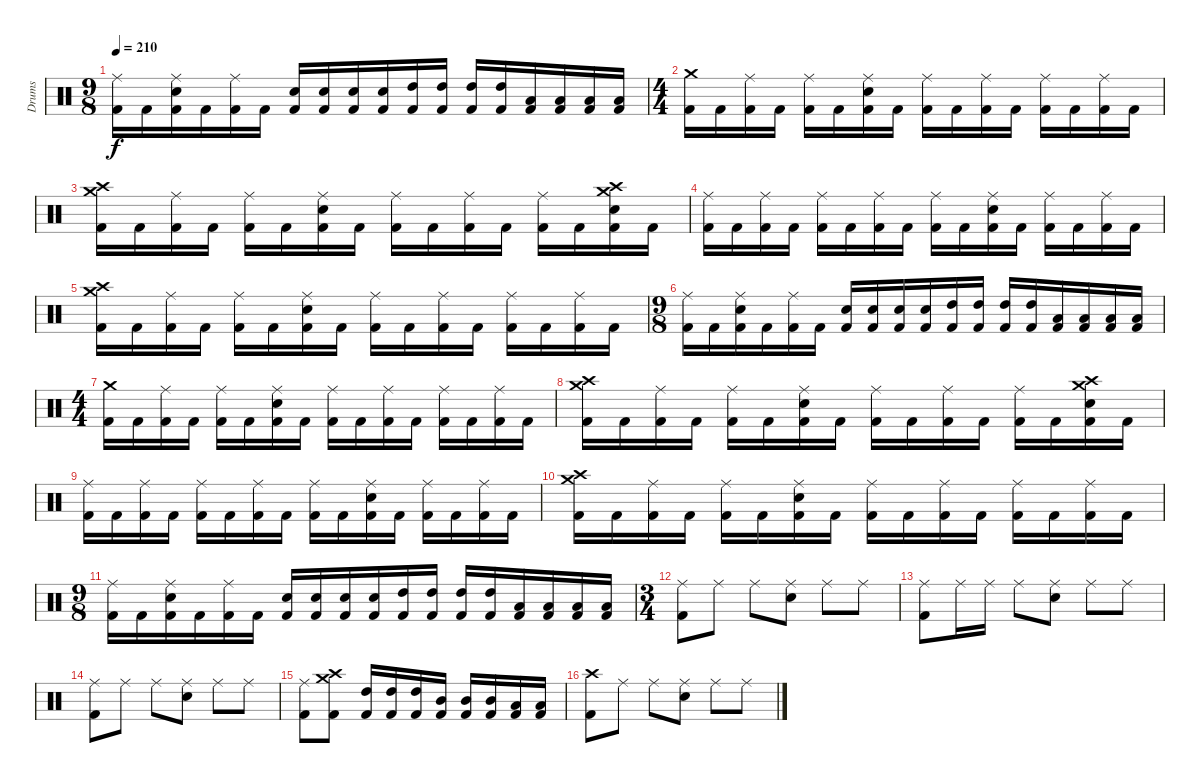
\track ("Drums" "Drums") {instrument percussion}
\staff {score}
\articulation defaults
\ts (9 8)
\tempo 210
\clef neutral
\ks c
("Kick (hit) 2" "Ride (middle)").16{dy f} "Kick (hit) 2".16 ("Kick (hit) 2" "Electric Snare (hit)" "Ride (middle)").16 "Kick (hit) 2".16 ("Kick (hit) 2" "Ride (middle)").16 "Kick (hit) 2".16 ("Kick (hit) 2" "Electric Snare (hit)").16 ("Kick (hit) 2" "Electric Snare (hit)").16 ("Kick (hit) 2" "Electric Snare (hit)").16 ("Kick (hit) 2" "Electric Snare (hit)").16 ("Kick (hit) 2" "High Tom (hit)").16 ("Kick (hit) 2" "High Tom (hit)").16 ("Kick (hit) 2" "High Tom (hit)").16 ("Kick (hit) 2" "High Tom (hit)").16 ("Kick (hit) 2" "Low Tom (hit)").16 ("Kick (hit) 2" "Low Tom (hit)").16 ("Kick (hit) 2" "Low Tom (hit)").16 ("Kick (hit) 2" "Low Tom (hit)").16 |
\ts (4 4)
("Kick (hit) 2" "Crash medium (hit)").16 "Kick (hit) 2".16 ("Kick (hit) 2" "Ride (middle)").16 "Kick (hit) 2".16 ("Kick (hit) 2" "Ride (middle)").16 "Kick (hit) 2".16 ("Kick (hit) 2" "Electric Snare (hit)" "Ride (middle)").16 "Kick (hit) 2".16 ("Kick (hit) 2" "Ride (middle)").16 "Kick (hit) 2".16 ("Kick (hit) 2" "Ride (middle)").16 "Kick (hit) 2".16 ("Kick (hit) 2" "Ride (middle)").16 "Kick (hit) 2".16 ("Kick (hit) 2" "Ride (middle)").16 "Kick (hit) 2".16 |
("Kick (hit) 2" "Crash high (hit)" "Crash medium (hit)").16 "Kick (hit) 2".16 ("Kick (hit) 2" "Ride (middle)").16 "Kick (hit) 2".16 ("Kick (hit) 2" "Ride (middle)").16 "Kick (hit) 2".16 ("Kick (hit) 2" "Electric Snare (hit)" "Ride (middle)").16 "Kick (hit) 2".16 ("Kick (hit) 2" "Ride (middle)").16 "Kick (hit) 2".16 ("Kick (hit) 2" "Ride (middle)").16 "Kick (hit) 2".16 ("Kick (hit) 2" "Ride (middle)").16 "Kick (hit) 2".16 ("Kick (hit) 2" "Electric Snare (hit)" "Crash high (hit)" "Crash medium (hit)").16 "Kick (hit) 2".16 |
("Kick (hit) 2" "Ride (middle)").16 "Kick (hit) 2".16 ("Kick (hit) 2" "Ride (middle)").16 "Kick (hit) 2".16 ("Kick (hit) 2" "Ride (middle)").16 "Kick (hit) 2".16 ("Kick (hit) 2" "Ride (middle)").16 "Kick (hit) 2".16 ("Kick (hit) 2" "Ride (middle)").16 "Kick (hit) 2".16 ("Kick (hit) 2" "Electric Snare (hit)" "Ride (middle)").16 "Kick (hit) 2".16 ("Kick (hit) 2" "Ride (middle)").16 "Kick (hit) 2".16 ("Kick (hit) 2" "Ride (middle)").16 "Kick (hit) 2".16 |
("Kick (hit) 2" "Crash high (hit)" "Crash medium (hit)").16 "Kick (hit) 2".16 ("Kick (hit) 2" "Ride (middle)").16 "Kick (hit) 2".16 ("Kick (hit) 2" "Ride (middle)").16 "Kick (hit) 2".16 ("Kick (hit) 2" "Electric Snare (hit)" "Ride (middle)").16 "Kick (hit) 2".16 ("Kick (hit) 2" "Ride (middle)").16 "Kick (hit) 2".16 ("Kick (hit) 2" "Ride (middle)").16 "Kick (hit) 2".16 ("Kick (hit) 2" "Ride (middle)").16 "Kick (hit) 2".16 ("Kick (hit) 2" "Ride (middle)").16 "Kick (hit) 2".16 |
\ts (9 8)
("Kick (hit) 2" "Ride (middle)").16 "Kick (hit) 2".16 ("Kick (hit) 2" "Electric Snare (hit)" "Ride (middle)").16 "Kick (hit) 2".16 ("Kick (hit) 2" "Ride (middle)").16 "Kick (hit) 2".16 ("Kick (hit) 2" "Electric Snare (hit)").16 ("Kick (hit) 2" "Electric Snare (hit)").16 ("Kick (hit) 2" "Electric Snare (hit)").16 ("Kick (hit) 2" "Electric Snare (hit)").16 ("Kick (hit) 2" "High Tom (hit)").16 ("Kick (hit) 2" "High Tom (hit)").16 ("Kick (hit) 2" "High Tom (hit)").16 ("Kick (hit) 2" "High Tom (hit)").16 ("Kick (hit) 2" "Low Tom (hit)").16 ("Kick (hit) 2" "Low Tom (hit)").16 ("Kick (hit) 2" "Low Tom (hit)").16 ("Kick (hit) 2" "Low Tom (hit)").16 |
\ts (4 4)
("Kick (hit) 2" "Crash medium (hit)").16 "Kick (hit) 2".16 ("Kick (hit) 2" "Ride (middle)").16 "Kick (hit) 2".16 ("Kick (hit) 2" "Ride (middle)").16 "Kick (hit) 2".16 ("Kick (hit) 2" "Electric Snare (hit)" "Ride (middle)").16 "Kick (hit) 2".16 ("Kick (hit) 2" "Ride (middle)").16 "Kick (hit) 2".16 ("Kick (hit) 2" "Ride (middle)").16 "Kick (hit) 2".16 ("Kick (hit) 2" "Ride (middle)").16 "Kick (hit) 2".16 ("Kick (hit) 2" "Ride (middle)").16 "Kick (hit) 2".16 |
("Kick (hit) 2" "Crash high (hit)" "Crash medium (hit)").16 "Kick (hit) 2".16 ("Kick (hit) 2" "Ride (middle)").16 "Kick (hit) 2".16 ("Kick (hit) 2" "Ride (middle)").16 "Kick (hit) 2".16 ("Kick (hit) 2" "Electric Snare (hit)" "Ride (middle)").16 "Kick (hit) 2".16 ("Kick (hit) 2" "Ride (middle)").16 "Kick (hit) 2".16 ("Kick (hit) 2" "Ride (middle)").16 "Kick (hit) 2".16 ("Kick (hit) 2" "Ride (middle)").16 "Kick (hit) 2".16 ("Kick (hit) 2" "Electric Snare (hit)" "Crash high (hit)" "Crash medium (hit)").16 "Kick (hit) 2".16 |
("Kick (hit) 2" "Ride (middle)").16 "Kick (hit) 2".16 ("Kick (hit) 2" "Ride (middle)").16 "Kick (hit) 2".16 ("Kick (hit) 2" "Ride (middle)").16 "Kick (hit) 2".16 ("Kick (hit) 2" "Ride (middle)").16 "Kick (hit) 2".16 ("Kick (hit) 2" "Ride (middle)").16 "Kick (hit) 2".16 ("Kick (hit) 2" "Electric Snare (hit)" "Ride (middle)").16 "Kick (hit) 2".16 ("Kick (hit) 2" "Ride (middle)").16 "Kick (hit) 2".16 ("Kick (hit) 2" "Ride (middle)").16 "Kick (hit) 2".16 |
("Kick (hit) 2" "Crash high (hit)" "Crash medium (hit)").16 "Kick (hit) 2".16 ("Kick (hit) 2" "Ride (middle)").16 "Kick (hit) 2".16 ("Kick (hit) 2" "Ride (middle)").16 "Kick (hit) 2".16 ("Kick (hit) 2" "Electric Snare (hit)" "Ride (middle)").16 "Kick (hit) 2".16 ("Kick (hit) 2" "Ride (middle)").16 "Kick (hit) 2".16 ("Kick (hit) 2" "Ride (middle)").16 "Kick (hit) 2".16 ("Kick (hit) 2" "Ride (middle)").16 "Kick (hit) 2".16 ("Kick (hit) 2" "Ride (middle)").16 "Kick (hit) 2".16 |
\ts (9 8)
("Kick (hit) 2" "Ride (middle)").16 "Kick (hit) 2".16 ("Kick (hit) 2" "Electric Snare (hit)" "Ride (middle)").16 "Kick (hit) 2".16 ("Kick (hit) 2" "Ride (middle)").16 "Kick (hit) 2".16 ("Kick (hit) 2" "Electric Snare (hit)").16 ("Kick (hit) 2" "Electric Snare (hit)").16 ("Kick (hit) 2" "Electric Snare (hit)").16 ("Kick (hit) 2" "Electric Snare (hit)").16 ("Kick (hit) 2" "High Tom (hit)").16 ("Kick (hit) 2" "High Tom (hit)").16 ("Kick (hit) 2" "High Tom (hit)").16 ("Kick (hit) 2" "High Tom (hit)").16 ("Kick (hit) 2" "Low Tom (hit)").16 ("Kick (hit) 2" "Low Tom (hit)").16 ("Kick (hit) 2" "Low Tom (hit)").16 ("Kick (hit) 2" "Low Tom (hit)").16 |
\ts (3 4)
("Kick (hit) 2" "Ride (middle)").8 "Ride (middle)".8 "Ride (middle)".8 ("Electric Snare (hit)" "Ride (middle)").8 "Ride (middle)".8 "Ride (middle)".8 |
("Kick (hit) 2" "Ride (middle)").8 "Ride (middle)".16 "Ride (middle)".16 "Ride (middle)".8 ("Electric Snare (hit)" "Ride (middle)").8 "Ride (middle)".8 "Ride (middle)".8 |
("Kick (hit) 2" "Ride (middle)").8 "Ride (middle)".8 "Ride (middle)".8 ("Electric Snare (hit)" "Ride (middle)").8 "Ride (middle)".8 "Ride (middle)".8 |
("Kick (hit) 2" "Ride (middle)").8 ("Kick (hit) 2" "Crash high (hit)" "Crash medium (hit)").8 ("Kick (hit) 2" "High Tom (hit)").16 ("Kick (hit) 2" "High Tom (hit)").16 ("Kick (hit) 2" "High Tom (hit)").16 ("Kick (hit) 2" "Mid Tom (hit)").16 ("Kick (hit) 2" "Mid Tom (hit)").16 ("Kick (hit) 2" "Mid Tom (hit)").16 ("Kick (hit) 2" "Low Tom (hit)").16 ("Kick (hit) 2" "Low Tom (hit)").16 |
("Kick (hit) 2" "Crash high (hit)").8 "Ride (middle)".8 "Ride (middle)".8 ("Electric Snare (hit)" "Ride (middle)").8 "Ride (middle)".8 "Ride (middle)".8
